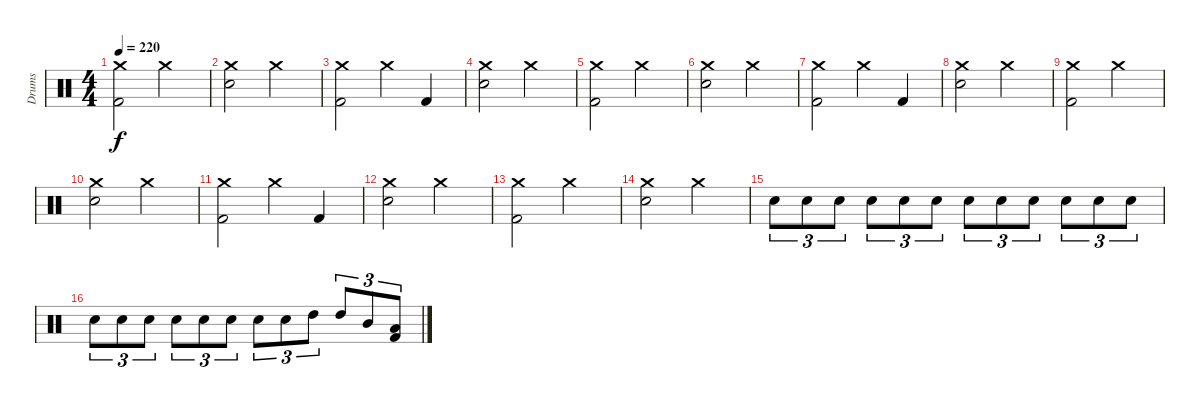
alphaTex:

\track ("Drums" "Drums") {instrument percussion}
\staff {score}
\articulation defaults
\ts (4 4)
\tempo 220
\clef neutral
\ks c
("Crash medium (hit)" "Kick (hit) 2").2{dy f} "Crash medium (hit)".2 |
("Crash medium (hit)" "Electric Snare (hit)").2 "Crash medium (hit)".2 |
("Crash medium (hit)" "Kick (hit) 2").2 "Crash medium (hit)".4 "Kick (hit) 2".4 |
("Crash medium (hit)" "Electric Snare (hit)").2 "Crash medium (hit)".2 |
("Crash medium (hit)" "Kick (hit) 2").2 "Crash medium (hit)".2 |
("Crash medium (hit)" "Electric Snare (hit)").2 "Crash medium (hit)".2 |
("Crash medium (hit)" "Kick (hit) 2").2 "Crash medium (hit)".4 "Kick (hit) 2".4 |
("Crash medium (hit)" "Electric Snare (hit)").2 "Crash medium (hit)".2 |
("Crash medium (hit)" "Kick (hit) 2").2 "Crash medium (hit)".2 |
("Crash medium (hit)" "Electric Snare (hit)").2 "Crash medium (hit)".2 |
("Crash medium (hit)" "Kick (hit) 2").2 "Crash medium (hit)".4 "Kick (hit) 2".4 |
("Crash medium (hit)" "Electric Snare (hit)").2 "Crash medium (hit)".2 |
("Crash medium (hit)" "Kick (hit) 2").2 "Crash medium (hit)".2 |
("Crash medium (hit)" "Electric Snare (hit)").2 "Crash medium (hit)".2 |
"Electric Snare (hit)".8{tu (3 2)} "Electric Snare (hit)".8{tu (3 2)} "Electric Snare (hit)".8{tu (3 2)} "Electric Snare (hit)".8{tu (3 2)} "Electric Snare (hit)".8{tu (3 2)} "Electric Snare (hit)".8{tu (3 2)} "Electric Snare (hit)".8{tu (3 2)} "Electric Snare (hit)".8{tu (3 2)} "Electric Snare (hit)".8{tu (3 2)} "Electric Snare (hit)".8{tu (3 2)} "Electric Snare (hit)".8{tu (3 2)} "Electric Snare (hit)".8{tu (3 2)} |
"Electric Snare (hit)".8{tu (3 2)} "Electric Snare (hit)".8{tu (3 2)} "Electric Snare (hit)".8{tu (3 2)} "Electric Snare (hit)".8{tu (3 2)} "Electric Snare (hit)".8{tu (3 2)} "Electric Snare (hit)".8{tu (3 2)} "Electric Snare (hit)".8{tu (3 2)} "Electric Snare (hit)".8{tu (3 2)} "High Tom (hit)".8{tu (3 2)} "High Tom (hit)".8{tu (3 2)} "Mid Tom (hit)".8{tu (3 2)} ("Low Tom (hit)" "Kick (hit) 2").8{tu (3 2)}
